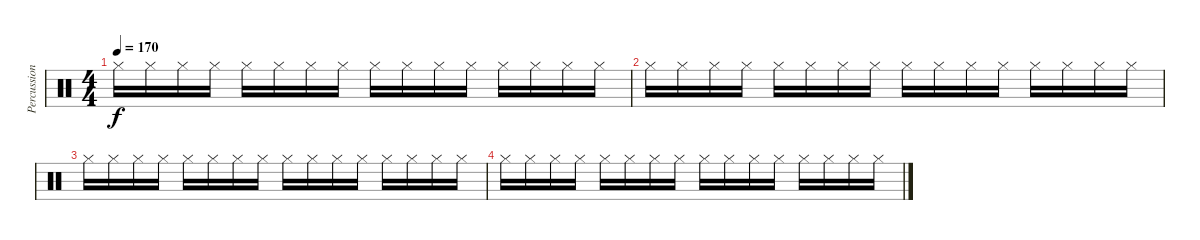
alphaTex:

\track ("Percussion" "Percussion") {instrument percussion}
\staff {score}
\articulation defaults
\ts (4 4)
\tempo 170
\clef neutral
\ks c "Hi-Hat (closed)".16{dy f} "Hi-Hat (closed)".16 "Hi-Hat (closed)".16 "Hi-Hat (closed)".16 "Hi-Hat (closed)".16 "Hi-Hat (closed)".16 "Hi-Hat (closed)".16 "Hi-Hat (closed)".16 "Hi-Hat (closed)".16 "Hi-Hat (closed)".16 "Hi-Hat (closed)".16 "Hi-Hat (closed)".16 "Hi-Hat (closed)".16 "Hi-Hat (closed)".16 "Hi-Hat (closed)".16 "Hi-Hat (closed)".16
|
"Hi-Hat (closed)".16 "Hi-Hat (closed)".16 "Hi-Hat (closed)".16 "Hi-Hat (closed)".16 "Hi-Hat (closed)".16 "Hi-Hat (closed)".16 "Hi-Hat (closed)".16 "Hi-Hat (closed)".16 "Hi-Hat (closed)".16 "Hi-Hat (closed)".16 "Hi-Hat (closed)".16 "Hi-Hat (closed)".16 "Hi-Hat (closed)".16 "Hi-Hat (closed)".16 "Hi-Hat (closed)".16 "Hi-Hat (closed)".16 |
"Hi-Hat (closed)".16 "Hi-Hat (closed)".16 "Hi-Hat (closed)".16 "Hi-Hat (closed)".16 "Hi-Hat (closed)".16 "Hi-Hat (closed)".16 "Hi-Hat (closed)".16 "Hi-Hat (closed)".16 "Hi-Hat (closed)".16 "Hi-Hat (closed)".16 "Hi-Hat (closed)".16 "Hi-Hat (closed)".16 "Hi-Hat (closed)".16 "Hi-Hat (closed)".16 "Hi-Hat (closed)".16 "Hi-Hat (closed)".16 |
"Hi-Hat (closed)".16 "Hi-Hat (closed)".16 "Hi-Hat (closed)".16 "Hi-Hat (closed)".16 "Hi-Hat (closed)".16 "Hi-Hat (closed)".16 "Hi-Hat (closed)".16 "Hi-Hat (closed)".16 "Hi-Hat (closed)".16 "Hi-Hat (closed)".16 "Hi-Hat (closed)".16 "Hi-Hat (closed)".16 "Hi-Hat (closed)".16 "Hi-Hat (closed)".16 "Hi-Hat (closed)".16 "Hi-Hat (closed)".16
